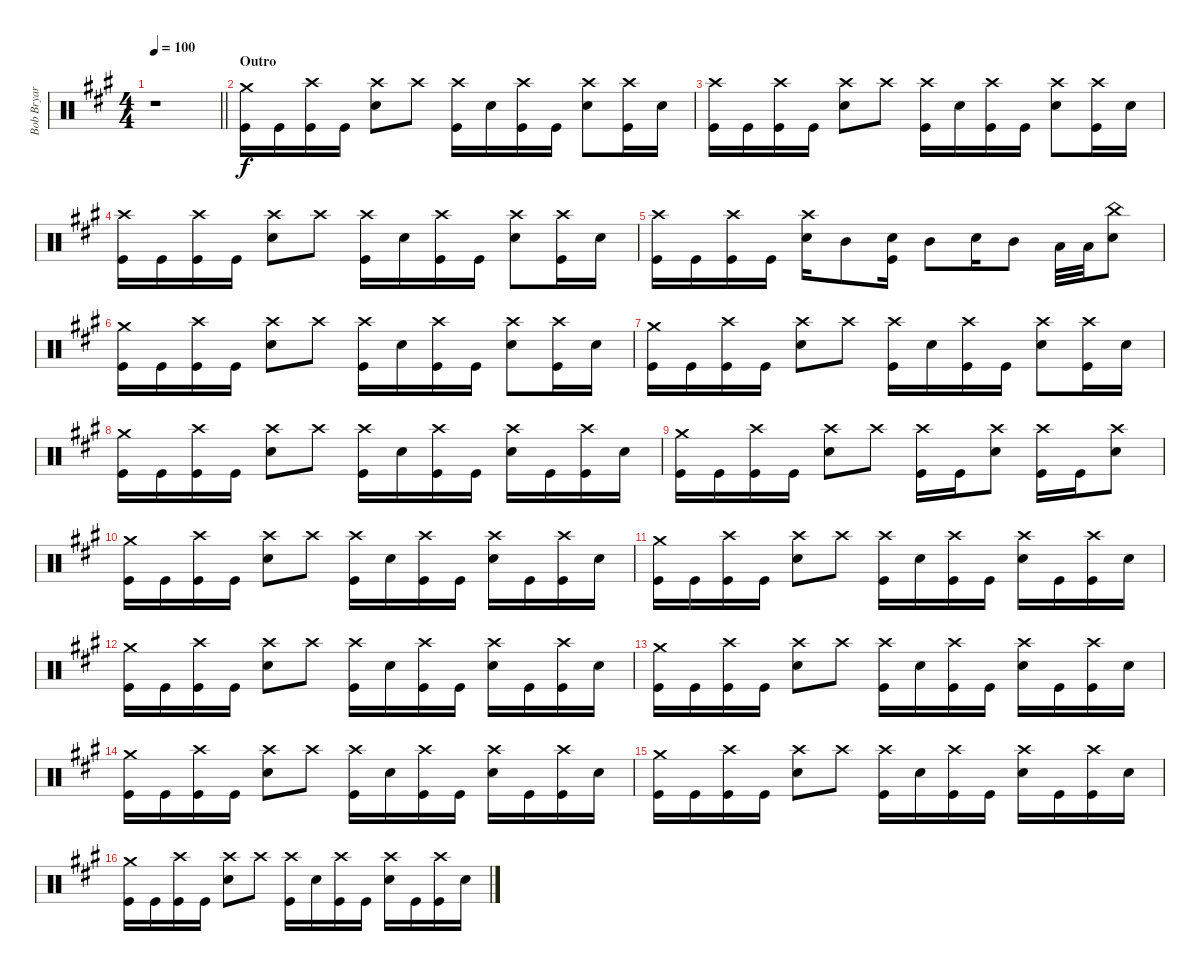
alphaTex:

\track ("Bob Bryar" "Bob Bryar") {instrument percussion}
\staff {score}
\articulation defaults
\ts (4 4)
\tempo 100
\clef neutral
\barLineRight lightlight
\ks a
r.1{dy f} |
\section ("" "Outro")
("Crash medium (hit)" "Kick (hit)").16 "Kick (hit)".16 ("Crash high (hit)" "Kick (hit)").16 "Kick (hit)".16 ("Crash high (hit)" "Snare (hit) 2").8 "Crash high (hit)".8 ("Crash high (hit)" "Kick (hit)").16 "Snare (hit) 2".16 ("Crash high (hit)" "Kick (hit)").16 "Kick (hit)".16 ("Crash high (hit)" "Snare (hit) 2").8 ("Crash high (hit)" "Kick (hit)").16 "Snare (hit) 2".16 |
("Crash high (hit)" "Kick (hit)").16 "Kick (hit)".16 ("Crash high (hit)" "Kick (hit)").16 "Kick (hit)".16 ("Crash high (hit)" "Snare (hit) 2").8 "Crash high (hit)".8 ("Crash high (hit)" "Kick (hit)").16 "Snare (hit) 2".16 ("Crash high (hit)" "Kick (hit)").16 "Kick (hit)".16 ("Crash high (hit)" "Snare (hit) 2").8 ("Crash high (hit)" "Kick (hit)").16 "Snare (hit) 2".16 |
("Crash high (hit)" "Kick (hit)").16 "Kick (hit)".16 ("Crash high (hit)" "Kick (hit)").16 "Kick (hit)".16 ("Crash high (hit)" "Snare (hit) 2").8 "Crash high (hit)".8 ("Crash high (hit)" "Kick (hit)").16 "Snare (hit) 2".16 ("Crash high (hit)" "Kick (hit)").16 "Kick (hit)".16 ("Crash high (hit)" "Snare (hit) 2").8 ("Crash high (hit)" "Kick (hit)").16 "Snare (hit) 2".16 |
("Crash high (hit)" "Kick (hit)").16 "Kick (hit)".16 ("Crash high (hit)" "Kick (hit)").16 "Kick (hit)".16 ("Crash high (hit)" "Snare (hit) 2").16 "Mid Tom (hit)".8 ("Snare (hit) 2" "Kick (hit)").16 "Mid Tom (hit)".8 "Snare (hit) 2".16 "Mid Tom (hit)".8 "Low Tom (hit)".32 "Low Tom (hit)".32 ("China (hit)" "Snare (hit) 2").8 |
("Crash medium (hit)" "Kick (hit)").16 "Kick (hit)".16 ("Crash high (hit)" "Kick (hit)").16 "Kick (hit)".16 ("Crash high (hit)" "Snare (hit) 2").8 "Crash high (hit)".8 ("Crash high (hit)" "Kick (hit)").16 "Snare (hit) 2".16 ("Crash high (hit)" "Kick (hit)").16 "Kick (hit)".16 ("Crash high (hit)" "Snare (hit) 2").8 ("Crash high (hit)" "Kick (hit)").16 "Snare (hit) 2".16 |
("Crash medium (hit)" "Kick (hit)").16 "Kick (hit)".16 ("Crash high (hit)" "Kick (hit)").16 "Kick (hit)".16 ("Crash high (hit)" "Snare (hit) 2").8 "Crash high (hit)".8 ("Crash high (hit)" "Kick (hit)").16 "Snare (hit) 2".16 ("Crash high (hit)" "Kick (hit)").16 "Kick (hit)".16 ("Crash high (hit)" "Snare (hit) 2").8 ("Crash high (hit)" "Kick (hit)").16 "Snare (hit) 2".16 |
("Crash medium (hit)" "Kick (hit)").16 "Kick (hit)".16 ("Crash high (hit)" "Kick (hit)").16 "Kick (hit)".16 ("Crash high (hit)" "Snare (hit) 2").8 "Crash high (hit)".8 ("Crash high (hit)" "Kick (hit)").16 "Snare (hit) 2".16 ("Crash high (hit)" "Kick (hit)").16 "Kick (hit)".16 ("Crash high (hit)" "Snare (hit) 2").16 "Kick (hit)".16 ("Crash high (hit)" "Kick (hit)").16 "Snare (hit) 2".16 |
("Crash medium (hit)" "Kick (hit)").16 "Kick (hit)".16 ("Crash high (hit)" "Kick (hit)").16 "Kick (hit)".16 ("Crash high (hit)" "Snare (hit) 2").8 "Crash high (hit)".8 ("Crash high (hit)" "Kick (hit)").16 "Kick (hit)".16 ("Crash high (hit)" "Snare (hit) 2").8 ("Crash high (hit)" "Kick (hit)").16 "Kick (hit)".16 ("Crash high (hit)" "Snare (hit) 2").8 |
("Crash medium (hit)" "Kick (hit)").16 "Kick (hit)".16 ("Crash high (hit)" "Kick (hit)").16 "Kick (hit)".16 ("Crash high (hit)" "Snare (hit) 2").8 "Crash high (hit)".8 ("Crash high (hit)" "Kick (hit)").16 "Snare (hit) 2".16 ("Crash high (hit)" "Kick (hit)").16 "Kick (hit)".16 ("Crash high (hit)" "Snare (hit) 2").16 "Kick (hit)".16 ("Crash high (hit)" "Kick (hit)").16 "Snare (hit) 2".16 |
("Crash medium (hit)" "Kick (hit)").16 "Kick (hit)".16 ("Crash high (hit)" "Kick (hit)").16 "Kick (hit)".16 ("Crash high (hit)" "Snare (hit) 2").8 "Crash high (hit)".8 ("Crash high (hit)" "Kick (hit)").16 "Snare (hit) 2".16 ("Crash high (hit)" "Kick (hit)").16 "Kick (hit)".16 ("Crash high (hit)" "Snare (hit) 2").16 "Kick (hit)".16 ("Crash high (hit)" "Kick (hit)").16 "Snare (hit) 2".16 |
("Crash medium (hit)" "Kick (hit)").16 "Kick (hit)".16 ("Crash high (hit)" "Kick (hit)").16 "Kick (hit)".16 ("Crash high (hit)" "Snare (hit) 2").8 "Crash high (hit)".8 ("Crash high (hit)" "Kick (hit)").16 "Snare (hit) 2".16 ("Crash high (hit)" "Kick (hit)").16 "Kick (hit)".16 ("Crash high (hit)" "Snare (hit) 2").16 "Kick (hit)".16 ("Crash high (hit)" "Kick (hit)").16 "Snare (hit) 2".16 |
("Crash medium (hit)" "Kick (hit)").16 "Kick (hit)".16 ("Crash high (hit)" "Kick (hit)").16 "Kick (hit)".16 ("Crash high (hit)" "Snare (hit) 2").8 "Crash high (hit)".8 ("Crash high (hit)" "Kick (hit)").16 "Snare (hit) 2".16 ("Crash high (hit)" "Kick (hit)").16 "Kick (hit)".16 ("Crash high (hit)" "Snare (hit) 2").16 "Kick (hit)".16 ("Crash high (hit)" "Kick (hit)").16 "Snare (hit) 2".16 |
("Crash medium (hit)" "Kick (hit)").16 "Kick (hit)".16 ("Crash high (hit)" "Kick (hit)").16 "Kick (hit)".16 ("Crash high (hit)" "Snare (hit) 2").8 "Crash high (hit)".8 ("Crash high (hit)" "Kick (hit)").16 "Snare (hit) 2".16 ("Crash high (hit)" "Kick (hit)").16 "Kick (hit)".16 ("Crash high (hit)" "Snare (hit) 2").16 "Kick (hit)".16 ("Crash high (hit)" "Kick (hit)").16 "Snare (hit) 2".16 |
("Crash medium (hit)" "Kick (hit)").16 "Kick (hit)".16 ("Crash high (hit)" "Kick (hit)").16 "Kick (hit)".16 ("Crash high (hit)" "Snare (hit) 2").8 "Crash high (hit)".8 ("Crash high (hit)" "Kick (hit)").16 "Snare (hit) 2".16 ("Crash high (hit)" "Kick (hit)").16 "Kick (hit)".16 ("Crash high (hit)" "Snare (hit) 2").16 "Kick (hit)".16 ("Crash high (hit)" "Kick (hit)").16 "Snare (hit) 2".16 |
("Crash medium (hit)" "Kick (hit)").16 "Kick (hit)".16 ("Crash high (hit)" "Kick (hit)").16 "Kick (hit)".16 ("Crash high (hit)" "Snare (hit) 2").8 "Crash high (hit)".8 ("Crash high (hit)" "Kick (hit)").16 "Snare (hit) 2".16 ("Crash high (hit)" "Kick (hit)").16 "Kick (hit)".16 ("Crash high (hit)" "Snare (hit) 2").16 "Kick (hit)".16 ("Crash high (hit)" "Kick (hit)").16 "Snare (hit) 2".16
